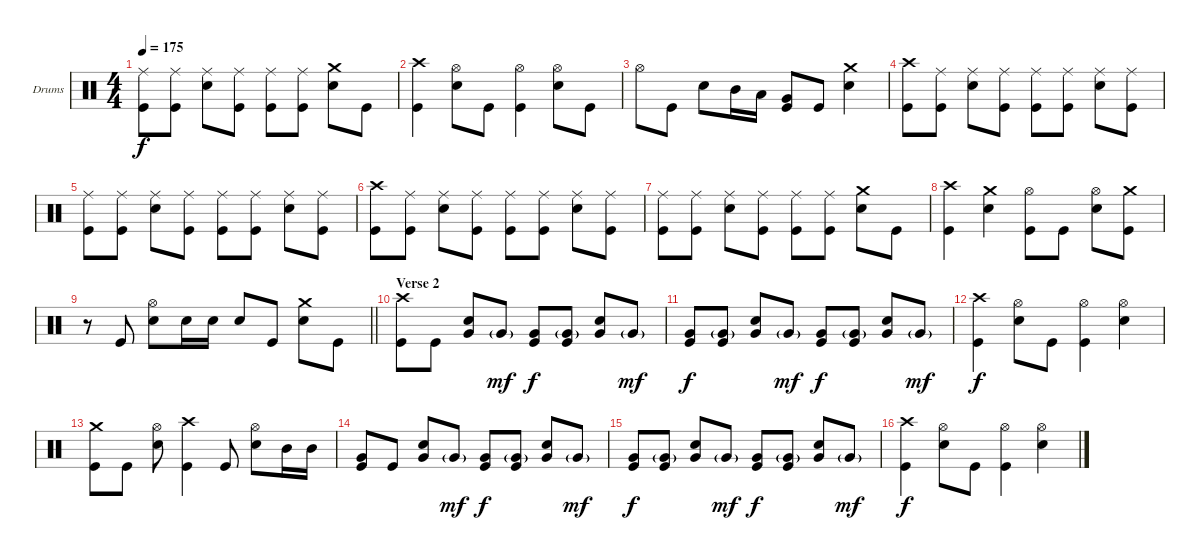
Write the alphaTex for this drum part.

\bracketExtendMode groupsimilarinstruments
\firstSystemTrackNameOrientation horizontal
\otherSystemsTrackNameOrientation horizontal
\track ("Drumkit" "Drums") {instrument percussion}
\staff {score}
\articulation defaults
\ts (4 4)
\tempo 175
\clef neutral
\ks c
("Ride (middle)" "Kick (hit)").8{dy f} ("Ride (middle)" "Kick (hit)").8 ("Ride (middle)" "Snare (hit) 2").8 ("Ride (middle)" "Kick (hit)").8 ("Ride (middle)" "Kick (hit)").8 ("Ride (middle)" "Kick (hit)").8 ("Crash medium (hit)" "Snare (hit) 2").8 "Kick (hit)".8 |
("Crash high (hit)" "Kick (hit)").4 ("Hi-Hat (open)" "Snare (hit) 2").8 "Kick (hit)".8 ("Hi-Hat (open)" "Kick (hit)").4 ("Hi-Hat (open)" "Snare (hit) 2").8 "Kick (hit)".8 |
"Hi-Hat (open)".8 "Kick (hit)".8 "Snare (hit) 2".8 "Mid Tom (hit)".16 "Low Tom (hit)".16 ("Very Low Tom (hit)" "Kick (hit)").8 "Kick (hit)".8 ("Crash medium (hit)" "Snare (hit) 2").4 |
("Crash high (hit)" "Kick (hit)").8 ("Ride (middle)" "Kick (hit)").8 ("Ride (middle)" "Snare (hit) 2").8 ("Ride (middle)" "Kick (hit)").8 ("Ride (middle)" "Kick (hit)").8 ("Ride (middle)" "Kick (hit)").8 ("Ride (middle)" "Snare (hit) 2").8 ("Ride (middle)" "Kick (hit)").8 |
("Ride (middle)" "Kick (hit)").8 ("Ride (middle)" "Kick (hit)").8 ("Ride (middle)" "Snare (hit) 2").8 ("Ride (middle)" "Kick (hit)").8 ("Ride (middle)" "Kick (hit)").8 ("Ride (middle)" "Kick (hit)").8 ("Ride (middle)" "Snare (hit) 2").8 ("Ride (middle)" "Kick (hit)").8 |
("Crash high (hit)" "Kick (hit)").8 ("Ride (middle)" "Kick (hit)").8 ("Ride (middle)" "Snare (hit) 2").8 ("Ride (middle)" "Kick (hit)").8 ("Ride (middle)" "Kick (hit)").8 ("Ride (middle)" "Kick (hit)").8 ("Ride (middle)" "Snare (hit) 2").8 ("Ride (middle)" "Kick (hit)").8 |
("Ride (middle)" "Kick (hit)").8 ("Ride (middle)" "Kick (hit)").8 ("Ride (middle)" "Snare (hit) 2").8 ("Ride (middle)" "Kick (hit)").8 ("Ride (middle)" "Kick (hit)").8 ("Ride (middle)" "Kick (hit)").8 ("Crash medium (hit)" "Snare (hit) 2").8 "Kick (hit)".8 |
("Crash high (hit)" "Kick (hit)").4 ("Crash medium (hit)" "Snare (hit) 2").4 ("Hi-Hat (open)" "Kick (hit)").8 "Kick (hit)".8 ("Hi-Hat (open)" "Snare (hit) 2").8 ("Crash medium (hit)" "Kick (hit)").8 |
\barLineRight lightlight
r.8 "Kick (hit)".8 ("Hi-Hat (open)" "Snare (hit) 2").8 "Snare (hit) 2".16 "Snare (hit) 2".16 "Snare (hit) 2".8 "Kick (hit)".8 ("Crash medium (hit)" "Snare (hit) 2").8 "Kick (hit)".8 |
\section ("" "Verse 2")
("Crash high (hit)" "Kick (hit)").8 "Kick (hit)".8 ("Very Low Tom (hit)" "Snare (hit) 2").8 "Very Low Tom (hit)"{g}.8{dy mf} ("Very Low Tom (hit)" "Kick (hit)").8{dy f} ("Very Low Tom (hit)"{g} "Kick (hit)").8 ("Very Low Tom (hit)" "Snare (hit) 2").8 "Very Low Tom (hit)"{g}.8{dy mf} |
("Very Low Tom (hit)" "Kick (hit)").8{dy f} ("Very Low Tom (hit)"{g} "Kick (hit)").8 ("Very Low Tom (hit)" "Snare (hit) 2").8 "Very Low Tom (hit)"{g}.8{dy mf} ("Very Low Tom (hit)" "Kick (hit)").8{dy f} ("Very Low Tom (hit)"{g} "Kick (hit)").8 ("Very Low Tom (hit)" "Snare (hit) 2").8 "Very Low Tom (hit)"{g}.8{dy mf} |
("Crash high (hit)" "Kick (hit)").4{dy f} ("Hi-Hat (open)" "Snare (hit) 2").8 "Kick (hit)".8 ("Hi-Hat (open)" "Kick (hit)").4 ("Hi-Hat (open)" "Snare (hit) 2").4 |
("Crash medium (hit)" "Kick (hit)").8 "Kick (hit)".8 ("Hi-Hat (open)" "Snare (hit) 2").8 ("Crash high (hit)" "Kick (hit)").4 "Kick (hit)".8 ("Hi-Hat (open)" "Snare (hit) 2").8 "Mid Tom (hit)".16 "Mid Tom (hit)".16 |
("Very Low Tom (hit)" "Kick (hit)").8 "Kick (hit)".8 ("Very Low Tom (hit)" "Snare (hit) 2").8 "Very Low Tom (hit)"{g}.8{dy mf} ("Very Low Tom (hit)" "Kick (hit)").8{dy f} ("Very Low Tom (hit)"{g} "Kick (hit)").8 ("Very Low Tom (hit)" "Snare (hit) 2").8 "Very Low Tom (hit)"{g}.8{dy mf} |
("Very Low Tom (hit)" "Kick (hit)").8{dy f} ("Very Low Tom (hit)"{g} "Kick (hit)").8 ("Very Low Tom (hit)" "Snare (hit) 2").8 "Very Low Tom (hit)"{g}.8{dy mf} ("Very Low Tom (hit)" "Kick (hit)").8{dy f} ("Very Low Tom (hit)"{g} "Kick (hit)").8 ("Very Low Tom (hit)" "Snare (hit) 2").8 "Very Low Tom (hit)"{g}.8{dy mf} |
("Crash high (hit)" "Kick (hit)").4{dy f} ("Hi-Hat (open)" "Snare (hit) 2").8 "Kick (hit)".8 ("Hi-Hat (open)" "Kick (hit)").4 ("Hi-Hat (open)" "Snare (hit) 2").4
